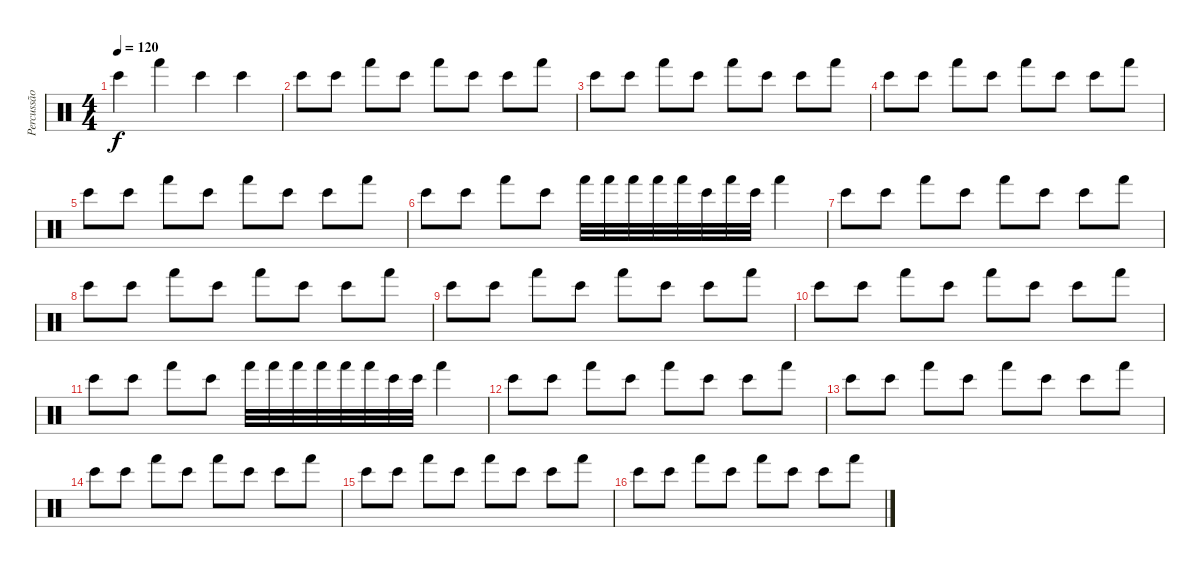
\track ("Percussão" "Percussão") {instrument percussion}
\staff {score}
\articulation defaults
\ts (4 4)
\tempo 120
\clef neutral
\ks c "Bongo High (hit)".4{dy f} "Hand (hit)".4 "Bongo High (hit)".4 "Bongo High (hit)".4
|
"Bongo High (hit)".8 "Bongo High (hit)".8 "Hand (hit)".8 "Bongo High (hit)".8 "Hand (hit)".8 "Bongo High (hit)".8 "Bongo High (hit)".8 "Hand (hit)".8 |
"Bongo High (hit)".8 "Bongo High (hit)".8 "Hand (hit)".8 "Bongo High (hit)".8 "Hand (hit)".8 "Bongo High (hit)".8 "Bongo High (hit)".8 "Hand (hit)".8 |
"Bongo High (hit)".8 "Bongo High (hit)".8 "Hand (hit)".8 "Bongo High (hit)".8 "Hand (hit)".8 "Bongo High (hit)".8 "Bongo High (hit)".8 "Hand (hit)".8 |
"Bongo High (hit)".8 "Bongo High (hit)".8 "Hand (hit)".8 "Bongo High (hit)".8 "Hand (hit)".8 "Bongo High (hit)".8 "Bongo High (hit)".8 "Hand (hit)".8 |
"Bongo High (hit)".8 "Bongo High (hit)".8 "Hand (hit)".8 "Bongo High (hit)".8 "Hand (hit)".32 "Hand (hit)".32 "Hand (hit)".32 "Hand (hit)".32 "Hand (hit)".32 "Bongo High (hit)".32 "Hand (hit)".32 "Bongo High (hit)".32 "Hand (hit)".4 |
"Bongo High (hit)".8 "Bongo High (hit)".8 "Hand (hit)".8 "Bongo High (hit)".8 "Hand (hit)".8 "Bongo High (hit)".8 "Bongo High (hit)".8 "Hand (hit)".8 |
"Bongo High (hit)".8 "Bongo High (hit)".8 "Hand (hit)".8 "Bongo High (hit)".8 "Hand (hit)".8 "Bongo High (hit)".8 "Bongo High (hit)".8 "Hand (hit)".8 |
"Bongo High (hit)".8 "Bongo High (hit)".8 "Hand (hit)".8 "Bongo High (hit)".8 "Hand (hit)".8 "Bongo High (hit)".8 "Bongo High (hit)".8 "Hand (hit)".8 |
"Bongo High (hit)".8 "Bongo High (hit)".8 "Hand (hit)".8 "Bongo High (hit)".8 "Hand (hit)".8 "Bongo High (hit)".8 "Bongo High (hit)".8 "Hand (hit)".8 |
"Bongo High (hit)".8 "Bongo High (hit)".8 "Hand (hit)".8 "Bongo High (hit)".8 "Hand (hit)".32 "Hand (hit)".32 "Hand (hit)".32 "Hand (hit)".32 "Hand (hit)".32 "Hand (hit)".32 "Bongo High (hit)".32 "Bongo High (hit)".32 "Hand (hit)".4 |
"Bongo High (hit)".8 "Bongo High (hit)".8 "Hand (hit)".8 "Bongo High (hit)".8 "Hand (hit)".8 "Bongo High (hit)".8 "Bongo High (hit)".8 "Hand (hit)".8 |
"Bongo High (hit)".8 "Bongo High (hit)".8 "Hand (hit)".8 "Bongo High (hit)".8 "Hand (hit)".8 "Bongo High (hit)".8 "Bongo High (hit)".8 "Hand (hit)".8 |
"Bongo High (hit)".8 "Bongo High (hit)".8 "Hand (hit)".8 "Bongo High (hit)".8 "Hand (hit)".8 "Bongo High (hit)".8 "Bongo High (hit)".8 "Hand (hit)".8 |
"Bongo High (hit)".8 "Bongo High (hit)".8 "Hand (hit)".8 "Bongo High (hit)".8 "Hand (hit)".8 "Bongo High (hit)".8 "Bongo High (hit)".8 "Hand (hit)".8 |
"Bongo High (hit)".8 "Bongo High (hit)".8 "Hand (hit)".8 "Bongo High (hit)".8 "Hand (hit)".8 "Bongo High (hit)".8 "Bongo High (hit)".8 "Hand (hit)".8
